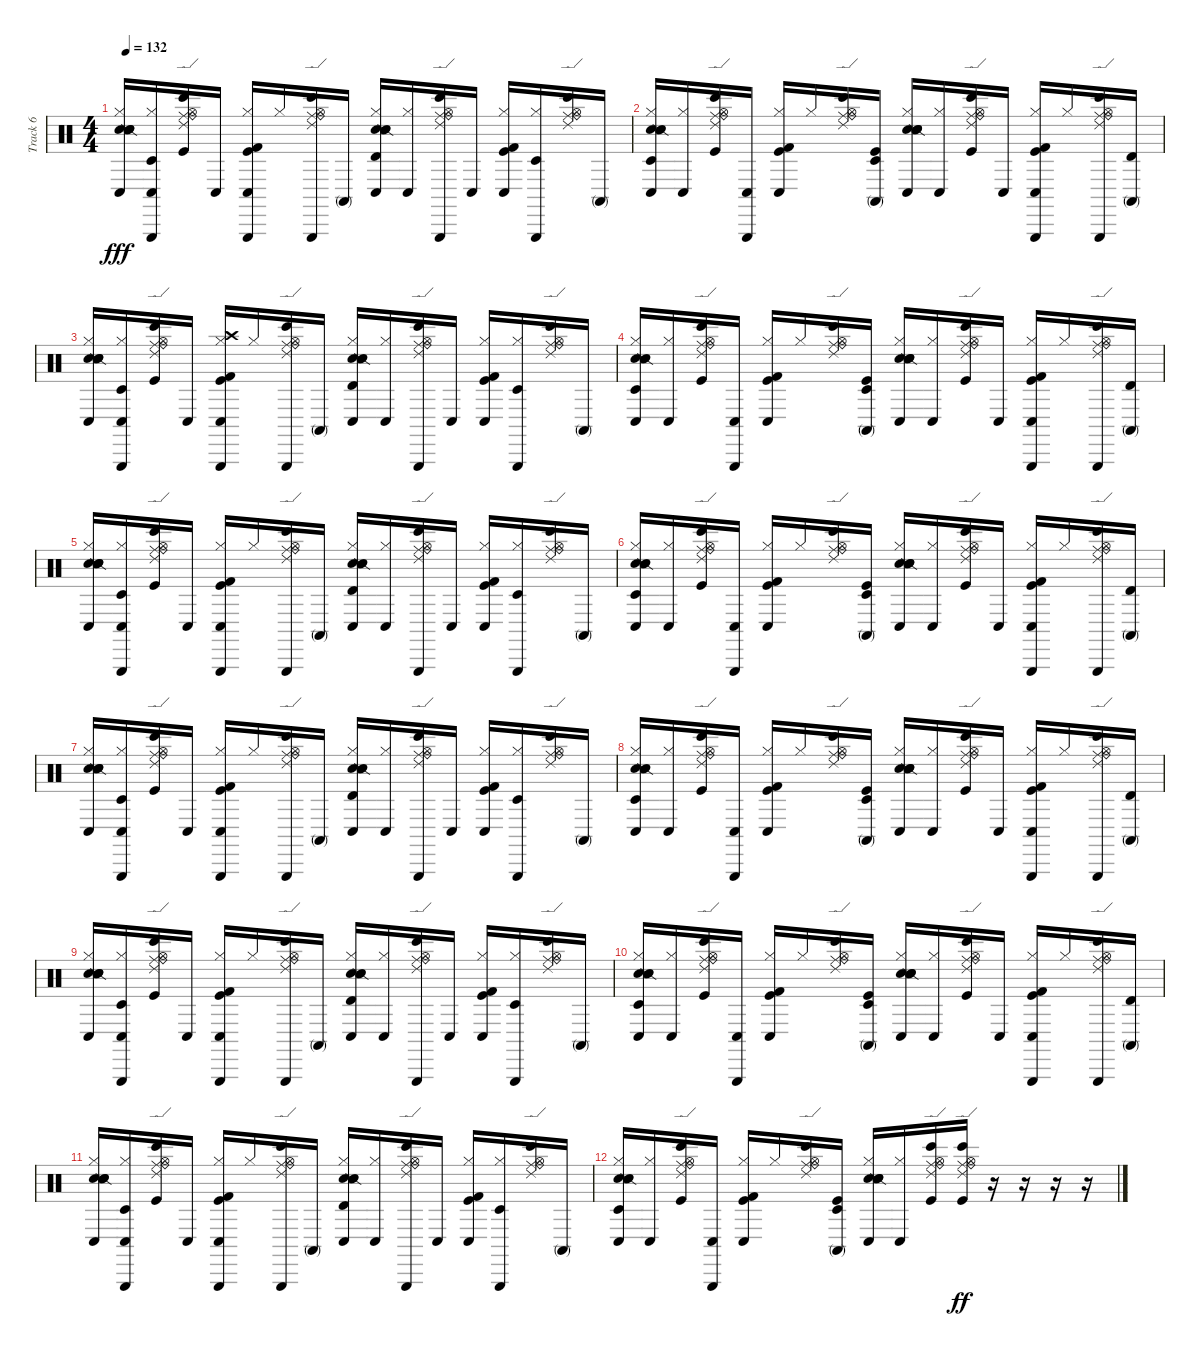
\track ("Track 6" "Track 6") {instrument percussion}
\staff {score}
\articulation defaults
\ts (4 4)
\tempo 132
\clef neutral
\ks c
("Metronome (bell)" "Snare (side stick) 2" "Electric Snare (hit)" "Hi-Hat (closed)" "Conga low (hit)" "Hand Clap (hit)").16{dy fff} ("Hi-Hat (closed)" "Conga low (hit)" "Timbale low (hit)" "Triangle (hit)").16 ("Kick (hit)" "Hi-Hat (open)" "Bongo High (hit)" "Ride (middle)" "Ride (edge) 2" "Ride (bell)").16 "Conga low (hit)".16 ("Hi-Hat (closed)" "Kick (hit)" "Kick (hit) 2" "Conga low (hit)" "Triangle (hit)").16 "Hi-Hat (closed)".16 ("Hi-Hat (open)" "Bongo High (hit)" "Ride (middle)" "Ride (edge) 2" "Ride (bell)" "Triangle (hit)").16 "Conga high (mute)".16 ("Hi-Hat (closed)" "Metronome (bell)" "Snare (side stick) 2" "Electric Snare (hit)" "Conga low (hit)" "Timbale high (hit)").16 ("Hi-Hat (closed)" "Conga low (hit)").16 ("Hi-Hat (open)" "Bongo High (hit)" "Ride (middle)" "Ride (edge) 2" "Ride (bell)" "Triangle (hit)").16 "Conga low (hit)".16 ("Hi-Hat (closed)" "Kick (hit)" "Kick (hit) 2" "Conga low (hit)").16 ("Hi-Hat (closed)" "Timbale low (hit)" "Triangle (hit)").16 ("Hi-Hat (open)" "Bongo High (hit)" "Ride (middle)" "Ride (edge) 2" "Ride (bell)").16 "Conga high (mute)".16 |
("Hi-Hat (closed)" "Metronome (bell)" "Snare (side stick) 2" "Electric Snare (hit)" "Conga low (hit)" "Timbale low (hit)").16 ("Hi-Hat (closed)" "Conga low (hit)").16 ("Hi-Hat (open)" "Kick (hit)" "Bongo High (hit)" "Ride (middle)" "Ride (edge) 2" "Ride (bell)").16 ("Conga low (hit)" "Triangle (hit)").16 ("Kick (hit)" "Kick (hit) 2" "Hi-Hat (closed)" "Conga low (hit)").16 "Hi-Hat (closed)".16 ("Hi-Hat (open)" "Bongo High (hit)" "Ride (middle)" "Ride (edge) 2" "Ride (bell)").16 ("Kick (hit)" "Conga high (mute)" "Timbale low (hit)").16 ("Metronome (bell)" "Snare (side stick) 2" "Electric Snare (hit)" "Hi-Hat (closed)" "Conga low (hit)" "Hand Clap (hit)").16 ("Hi-Hat (closed)" "Conga low (hit)").16 ("Kick (hit)" "Hi-Hat (open)" "Bongo High (hit)" "Ride (middle)" "Ride (edge) 2" "Ride (bell)").16 "Conga low (hit)".16 ("Kick (hit)" "Kick (hit) 2" "Hi-Hat (closed)" "Conga low (hit)" "Triangle (hit)").16 "Hi-Hat (closed)".16 ("Hi-Hat (open)" "Bongo High (hit)" "Ride (middle)" "Ride (edge) 2" "Ride (bell)" "Triangle (hit)").16 ("Conga high (mute)" "Timbale high (hit)").16 |
("Metronome (bell)" "Snare (side stick) 2" "Electric Snare (hit)" "Hi-Hat (closed)" "Conga low (hit)" "Hand Clap (hit)").16 ("Hi-Hat (closed)" "Conga low (hit)" "Timbale low (hit)" "Triangle (hit)").16 ("Kick (hit)" "Hi-Hat (open)" "Bongo High (hit)" "Ride (middle)" "Ride (edge) 2" "Ride (bell)").16 "Conga low (hit)".16 ("Hi-Hat (closed)" "Kick (hit)" "Kick (hit) 2" "Conga low (hit)" "Triangle (hit)" "Crash high (hit)").16 "Hi-Hat (closed)".16 ("Hi-Hat (open)" "Bongo High (hit)" "Ride (middle)" "Ride (edge) 2" "Ride (bell)" "Triangle (hit)").16 "Conga high (mute)".16 ("Hi-Hat (closed)" "Metronome (bell)" "Snare (side stick) 2" "Electric Snare (hit)" "Conga low (hit)" "Timbale high (hit)").16 ("Hi-Hat (closed)" "Conga low (hit)").16 ("Hi-Hat (open)" "Bongo High (hit)" "Ride (middle)" "Ride (edge) 2" "Ride (bell)" "Triangle (hit)").16 "Conga low (hit)".16 ("Hi-Hat (closed)" "Kick (hit)" "Kick (hit) 2" "Conga low (hit)").16 ("Hi-Hat (closed)" "Timbale low (hit)" "Triangle (hit)").16 ("Hi-Hat (open)" "Bongo High (hit)" "Ride (middle)" "Ride (edge) 2" "Ride (bell)").16 "Conga high (mute)".16 |
("Hi-Hat (closed)" "Metronome (bell)" "Snare (side stick) 2" "Electric Snare (hit)" "Conga low (hit)" "Timbale low (hit)").16 ("Hi-Hat (closed)" "Conga low (hit)").16 ("Hi-Hat (open)" "Kick (hit)" "Bongo High (hit)" "Ride (middle)" "Ride (edge) 2" "Ride (bell)").16 ("Conga low (hit)" "Triangle (hit)").16 ("Kick (hit)" "Kick (hit) 2" "Hi-Hat (closed)" "Conga low (hit)").16 "Hi-Hat (closed)".16 ("Hi-Hat (open)" "Bongo High (hit)" "Ride (middle)" "Ride (edge) 2" "Ride (bell)").16 ("Kick (hit)" "Conga high (mute)" "Timbale low (hit)").16 ("Metronome (bell)" "Snare (side stick) 2" "Electric Snare (hit)" "Hi-Hat (closed)" "Conga low (hit)" "Hand Clap (hit)").16 ("Hi-Hat (closed)" "Conga low (hit)").16 ("Kick (hit)" "Hi-Hat (open)" "Bongo High (hit)" "Ride (middle)" "Ride (edge) 2" "Ride (bell)").16 "Conga low (hit)".16 ("Kick (hit)" "Kick (hit) 2" "Hi-Hat (closed)" "Conga low (hit)" "Triangle (hit)").16 "Hi-Hat (closed)".16 ("Hi-Hat (open)" "Bongo High (hit)" "Ride (middle)" "Ride (edge) 2" "Ride (bell)" "Triangle (hit)").16 ("Conga high (mute)" "Timbale high (hit)").16 |
("Metronome (bell)" "Snare (side stick) 2" "Electric Snare (hit)" "Hi-Hat (closed)" "Conga low (hit)" "Hand Clap (hit)").16 ("Hi-Hat (closed)" "Conga low (hit)" "Timbale low (hit)" "Triangle (hit)").16 ("Kick (hit)" "Hi-Hat (open)" "Bongo High (hit)" "Ride (middle)" "Ride (edge) 2" "Ride (bell)").16 "Conga low (hit)".16 ("Hi-Hat (closed)" "Kick (hit)" "Kick (hit) 2" "Conga low (hit)" "Triangle (hit)").16 "Hi-Hat (closed)".16 ("Hi-Hat (open)" "Bongo High (hit)" "Ride (middle)" "Ride (edge) 2" "Ride (bell)" "Triangle (hit)").16 "Conga high (mute)".16 ("Hi-Hat (closed)" "Metronome (bell)" "Snare (side stick) 2" "Electric Snare (hit)" "Conga low (hit)" "Timbale high (hit)").16 ("Hi-Hat (closed)" "Conga low (hit)").16 ("Hi-Hat (open)" "Bongo High (hit)" "Ride (middle)" "Ride (edge) 2" "Ride (bell)" "Triangle (hit)").16 "Conga low (hit)".16 ("Hi-Hat (closed)" "Kick (hit)" "Kick (hit) 2" "Conga low (hit)").16 ("Hi-Hat (closed)" "Timbale low (hit)" "Triangle (hit)").16 ("Hi-Hat (open)" "Bongo High (hit)" "Ride (middle)" "Ride (edge) 2" "Ride (bell)").16 "Conga high (mute)".16 |
("Hi-Hat (closed)" "Metronome (bell)" "Snare (side stick) 2" "Electric Snare (hit)" "Conga low (hit)" "Timbale low (hit)").16 ("Hi-Hat (closed)" "Conga low (hit)").16 ("Hi-Hat (open)" "Kick (hit)" "Bongo High (hit)" "Ride (middle)" "Ride (edge) 2" "Ride (bell)").16 ("Conga low (hit)" "Triangle (hit)").16 ("Kick (hit)" "Kick (hit) 2" "Hi-Hat (closed)" "Conga low (hit)").16 "Hi-Hat (closed)".16 ("Hi-Hat (open)" "Bongo High (hit)" "Ride (middle)" "Ride (edge) 2" "Ride (bell)").16 ("Kick (hit)" "Conga high (mute)" "Timbale low (hit)").16 ("Metronome (bell)" "Snare (side stick) 2" "Electric Snare (hit)" "Hi-Hat (closed)" "Conga low (hit)" "Hand Clap (hit)").16 ("Hi-Hat (closed)" "Conga low (hit)").16 ("Kick (hit)" "Hi-Hat (open)" "Bongo High (hit)" "Ride (middle)" "Ride (edge) 2" "Ride (bell)").16 "Conga low (hit)".16 ("Kick (hit)" "Kick (hit) 2" "Hi-Hat (closed)" "Conga low (hit)" "Triangle (hit)").16 "Hi-Hat (closed)".16 ("Hi-Hat (open)" "Bongo High (hit)" "Ride (middle)" "Ride (edge) 2" "Ride (bell)" "Triangle (hit)").16 ("Conga high (mute)" "Timbale high (hit)").16 |
("Metronome (bell)" "Snare (side stick) 2" "Electric Snare (hit)" "Hi-Hat (closed)" "Conga low (hit)" "Hand Clap (hit)").16 ("Hi-Hat (closed)" "Conga low (hit)" "Timbale low (hit)" "Triangle (hit)").16 ("Kick (hit)" "Hi-Hat (open)" "Bongo High (hit)" "Ride (middle)" "Ride (edge) 2" "Ride (bell)").16 "Conga low (hit)".16 ("Hi-Hat (closed)" "Kick (hit)" "Kick (hit) 2" "Conga low (hit)" "Triangle (hit)").16 "Hi-Hat (closed)".16 ("Hi-Hat (open)" "Bongo High (hit)" "Ride (middle)" "Ride (edge) 2" "Ride (bell)" "Triangle (hit)").16 "Conga high (mute)".16 ("Hi-Hat (closed)" "Metronome (bell)" "Snare (side stick) 2" "Electric Snare (hit)" "Conga low (hit)" "Timbale high (hit)").16 ("Hi-Hat (closed)" "Conga low (hit)").16 ("Hi-Hat (open)" "Bongo High (hit)" "Ride (middle)" "Ride (edge) 2" "Ride (bell)" "Triangle (hit)").16 "Conga low (hit)".16 ("Hi-Hat (closed)" "Kick (hit)" "Kick (hit) 2" "Conga low (hit)").16 ("Hi-Hat (closed)" "Timbale low (hit)" "Triangle (hit)").16 ("Hi-Hat (open)" "Bongo High (hit)" "Ride (middle)" "Ride (edge) 2" "Ride (bell)").16 "Conga high (mute)".16 |
("Hi-Hat (closed)" "Metronome (bell)" "Snare (side stick) 2" "Electric Snare (hit)" "Conga low (hit)" "Timbale low (hit)").16 ("Hi-Hat (closed)" "Conga low (hit)").16 ("Hi-Hat (open)" "Kick (hit)" "Bongo High (hit)" "Ride (middle)" "Ride (edge) 2" "Ride (bell)").16 ("Conga low (hit)" "Triangle (hit)").16 ("Kick (hit)" "Kick (hit) 2" "Hi-Hat (closed)" "Conga low (hit)").16 "Hi-Hat (closed)".16 ("Hi-Hat (open)" "Bongo High (hit)" "Ride (middle)" "Ride (edge) 2" "Ride (bell)").16 ("Kick (hit)" "Conga high (mute)" "Timbale low (hit)").16 ("Metronome (bell)" "Snare (side stick) 2" "Electric Snare (hit)" "Hi-Hat (closed)" "Conga low (hit)" "Hand Clap (hit)").16 ("Hi-Hat (closed)" "Conga low (hit)").16 ("Kick (hit)" "Hi-Hat (open)" "Bongo High (hit)" "Ride (middle)" "Ride (edge) 2" "Ride (bell)").16 "Conga low (hit)".16 ("Kick (hit)" "Kick (hit) 2" "Hi-Hat (closed)" "Conga low (hit)" "Triangle (hit)").16 "Hi-Hat (closed)".16 ("Hi-Hat (open)" "Bongo High (hit)" "Ride (middle)" "Ride (edge) 2" "Ride (bell)" "Triangle (hit)").16 ("Conga high (mute)" "Timbale high (hit)").16 |
("Metronome (bell)" "Snare (side stick) 2" "Electric Snare (hit)" "Hi-Hat (closed)" "Conga low (hit)" "Hand Clap (hit)").16 ("Hi-Hat (closed)" "Conga low (hit)" "Timbale low (hit)" "Triangle (hit)").16 ("Kick (hit)" "Hi-Hat (open)" "Bongo High (hit)" "Ride (middle)" "Ride (edge) 2" "Ride (bell)").16 "Conga low (hit)".16 ("Hi-Hat (closed)" "Kick (hit)" "Kick (hit) 2" "Conga low (hit)" "Triangle (hit)").16 "Hi-Hat (closed)".16 ("Hi-Hat (open)" "Bongo High (hit)" "Ride (middle)" "Ride (edge) 2" "Ride (bell)" "Triangle (hit)").16 "Conga high (mute)".16 ("Hi-Hat (closed)" "Metronome (bell)" "Snare (side stick) 2" "Electric Snare (hit)" "Conga low (hit)" "Timbale high (hit)").16 ("Hi-Hat (closed)" "Conga low (hit)").16 ("Hi-Hat (open)" "Bongo High (hit)" "Ride (middle)" "Ride (edge) 2" "Ride (bell)" "Triangle (hit)").16 "Conga low (hit)".16 ("Hi-Hat (closed)" "Kick (hit)" "Kick (hit) 2" "Conga low (hit)").16 ("Hi-Hat (closed)" "Timbale low (hit)" "Triangle (hit)").16 ("Hi-Hat (open)" "Bongo High (hit)" "Ride (middle)" "Ride (edge) 2" "Ride (bell)").16 "Conga high (mute)".16 |
("Hi-Hat (closed)" "Metronome (bell)" "Snare (side stick) 2" "Electric Snare (hit)" "Conga low (hit)" "Timbale low (hit)").16 ("Hi-Hat (closed)" "Conga low (hit)").16 ("Hi-Hat (open)" "Kick (hit)" "Bongo High (hit)" "Ride (middle)" "Ride (edge) 2" "Ride (bell)").16 ("Conga low (hit)" "Triangle (hit)").16 ("Kick (hit)" "Kick (hit) 2" "Hi-Hat (closed)" "Conga low (hit)").16 "Hi-Hat (closed)".16 ("Hi-Hat (open)" "Bongo High (hit)" "Ride (middle)" "Ride (edge) 2" "Ride (bell)").16 ("Kick (hit)" "Conga high (mute)" "Timbale low (hit)").16 ("Metronome (bell)" "Snare (side stick) 2" "Electric Snare (hit)" "Hi-Hat (closed)" "Conga low (hit)" "Hand Clap (hit)").16 ("Hi-Hat (closed)" "Conga low (hit)").16 ("Kick (hit)" "Hi-Hat (open)" "Bongo High (hit)" "Ride (middle)" "Ride (edge) 2" "Ride (bell)").16 "Conga low (hit)".16 ("Kick (hit)" "Kick (hit) 2" "Hi-Hat (closed)" "Conga low (hit)" "Triangle (hit)").16 "Hi-Hat (closed)".16 ("Hi-Hat (open)" "Bongo High (hit)" "Ride (middle)" "Ride (edge) 2" "Ride (bell)" "Triangle (hit)").16 ("Conga high (mute)" "Timbale high (hit)").16 |
("Metronome (bell)" "Snare (side stick) 2" "Electric Snare (hit)" "Hi-Hat (closed)" "Conga low (hit)" "Hand Clap (hit)").16 ("Hi-Hat (closed)" "Conga low (hit)" "Timbale low (hit)" "Triangle (hit)").16 ("Kick (hit)" "Hi-Hat (open)" "Bongo High (hit)" "Ride (middle)" "Ride (edge) 2" "Ride (bell)").16 "Conga low (hit)".16 ("Hi-Hat (closed)" "Kick (hit)" "Kick (hit) 2" "Conga low (hit)" "Triangle (hit)").16 "Hi-Hat (closed)".16 ("Hi-Hat (open)" "Bongo High (hit)" "Ride (middle)" "Ride (edge) 2" "Ride (bell)" "Triangle (hit)").16 "Conga high (mute)".16 ("Hi-Hat (closed)" "Metronome (bell)" "Snare (side stick) 2" "Electric Snare (hit)" "Conga low (hit)" "Timbale high (hit)").16 ("Hi-Hat (closed)" "Conga low (hit)").16 ("Hi-Hat (open)" "Bongo High (hit)" "Ride (middle)" "Ride (edge) 2" "Ride (bell)" "Triangle (hit)").16 "Conga low (hit)".16 ("Hi-Hat (closed)" "Kick (hit)" "Kick (hit) 2" "Conga low (hit)").16 ("Hi-Hat (closed)" "Timbale low (hit)" "Triangle (hit)").16 ("Hi-Hat (open)" "Bongo High (hit)" "Ride (middle)" "Ride (edge) 2" "Ride (bell)").16 "Conga high (mute)".16 |
("Hi-Hat (closed)" "Metronome (bell)" "Snare (side stick) 2" "Electric Snare (hit)" "Conga low (hit)" "Timbale low (hit)").16 ("Hi-Hat (closed)" "Conga low (hit)").16 ("Hi-Hat (open)" "Kick (hit)" "Bongo High (hit)" "Ride (middle)" "Ride (edge) 2" "Ride (bell)").16 ("Conga low (hit)" "Triangle (hit)").16 ("Kick (hit)" "Kick (hit) 2" "Hi-Hat (closed)" "Conga low (hit)").16 "Hi-Hat (closed)".16 ("Hi-Hat (open)" "Bongo High (hit)" "Ride (middle)" "Ride (edge) 2" "Ride (bell)").16 ("Kick (hit)" "Conga high (mute)" "Timbale low (hit)").16 ("Metronome (bell)" "Snare (side stick) 2" "Electric Snare (hit)" "Hi-Hat (closed)" "Conga low (hit)" "Hand Clap (hit)").16 ("Hi-Hat (closed)" "Conga low (hit)").16 ("Kick (hit)" "Hi-Hat (open)" "Bongo High (hit)" "Ride (middle)" "Ride (edge) 2" "Ride (bell)").16 ("Kick (hit)" "Hi-Hat (open)" "Bongo High (hit)" "Ride (middle)" "Ride (edge) 2" "Ride (bell)").16{dy ff} r.16 r.16 r.16 r.16
